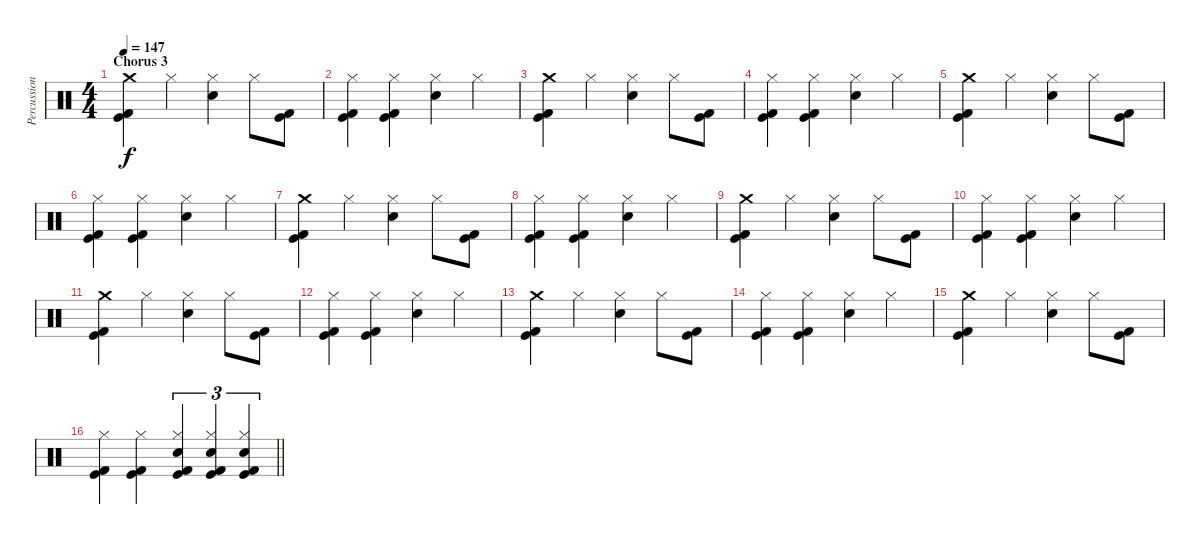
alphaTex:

\track ("Percussion" "Percussion") {instrument percussion}
\staff {score}
\articulation defaults
\ts (4 4)
\section ("" "Chorus 3")
\tempo 147
\clef neutral
\ks c
("Crash medium (hit)" "Kick (hit) 2" "Kick (hit)").4{dy f} "Hi-Hat (closed)".4 ("Hi-Hat (closed)" "Snare (hit) 2").4 "Hi-Hat (closed)".8 ("Kick (hit) 2" "Kick (hit)").8 |
("Hi-Hat (closed)" "Kick (hit) 2" "Kick (hit)").4 ("Hi-Hat (closed)" "Kick (hit) 2" "Kick (hit)").4 ("Hi-Hat (closed)" "Snare (hit) 2").4 "Hi-Hat (closed)".4 |
("Crash medium (hit)" "Kick (hit) 2" "Kick (hit)").4 "Hi-Hat (closed)".4 ("Hi-Hat (closed)" "Snare (hit) 2").4 "Hi-Hat (closed)".8 ("Kick (hit) 2" "Kick (hit)").8 |
("Hi-Hat (closed)" "Kick (hit) 2" "Kick (hit)").4 ("Hi-Hat (closed)" "Kick (hit) 2" "Kick (hit)").4 ("Hi-Hat (closed)" "Snare (hit) 2").4 "Hi-Hat (closed)".4 |
("Crash medium (hit)" "Kick (hit) 2" "Kick (hit)").4 "Hi-Hat (closed)".4 ("Hi-Hat (closed)" "Snare (hit) 2").4 "Hi-Hat (closed)".8 ("Kick (hit) 2" "Kick (hit)").8 |
("Hi-Hat (closed)" "Kick (hit) 2" "Kick (hit)").4 ("Hi-Hat (closed)" "Kick (hit) 2" "Kick (hit)").4 ("Hi-Hat (closed)" "Snare (hit) 2").4 "Hi-Hat (closed)".4 |
("Crash medium (hit)" "Kick (hit) 2" "Kick (hit)").4 "Hi-Hat (closed)".4 ("Hi-Hat (closed)" "Snare (hit) 2").4 "Hi-Hat (closed)".8 ("Kick (hit) 2" "Kick (hit)").8 |
("Hi-Hat (closed)" "Kick (hit) 2" "Kick (hit)").4 ("Hi-Hat (closed)" "Kick (hit) 2" "Kick (hit)").4 ("Hi-Hat (closed)" "Snare (hit) 2").4 "Hi-Hat (closed)".4 |
("Crash medium (hit)" "Kick (hit) 2" "Kick (hit)").4 "Hi-Hat (closed)".4 ("Hi-Hat (closed)" "Snare (hit) 2").4 "Hi-Hat (closed)".8 ("Kick (hit) 2" "Kick (hit)").8 |
("Hi-Hat (closed)" "Kick (hit) 2" "Kick (hit)").4 ("Hi-Hat (closed)" "Kick (hit) 2" "Kick (hit)").4 ("Hi-Hat (closed)" "Snare (hit) 2").4 "Hi-Hat (closed)".4 |
("Crash medium (hit)" "Kick (hit) 2" "Kick (hit)").4 "Hi-Hat (closed)".4 ("Hi-Hat (closed)" "Snare (hit) 2").4 "Hi-Hat (closed)".8 ("Kick (hit) 2" "Kick (hit)").8 |
("Hi-Hat (closed)" "Kick (hit) 2" "Kick (hit)").4 ("Hi-Hat (closed)" "Kick (hit) 2" "Kick (hit)").4 ("Hi-Hat (closed)" "Snare (hit) 2").4 "Hi-Hat (closed)".4 |
("Crash medium (hit)" "Kick (hit) 2" "Kick (hit)").4 "Hi-Hat (closed)".4 ("Hi-Hat (closed)" "Snare (hit) 2").4 "Hi-Hat (closed)".8 ("Kick (hit) 2" "Kick (hit)").8 |
("Hi-Hat (closed)" "Kick (hit) 2" "Kick (hit)").4 ("Hi-Hat (closed)" "Kick (hit) 2" "Kick (hit)").4 ("Hi-Hat (closed)" "Snare (hit) 2").4 "Hi-Hat (closed)".4 |
("Crash medium (hit)" "Kick (hit) 2" "Kick (hit)").4 "Hi-Hat (closed)".4 ("Hi-Hat (closed)" "Snare (hit) 2").4 "Hi-Hat (closed)".8 ("Kick (hit) 2" "Kick (hit)").8 |
\barLineRight lightlight
("Hi-Hat (closed)" "Kick (hit) 2" "Kick (hit)").4 ("Hi-Hat (closed)" "Kick (hit) 2" "Kick (hit)").4 ("Hi-Hat (closed)" "Snare (hit) 2" "Kick (hit) 2" "Kick (hit)").4{tu (3 2)} ("Hi-Hat (closed)" "Snare (hit) 2" "Kick (hit) 2" "Kick (hit)").4{tu (3 2)} ("Hi-Hat (closed)" "Snare (hit) 2" "Kick (hit) 2" "Kick (hit)").4{tu (3 2)}
